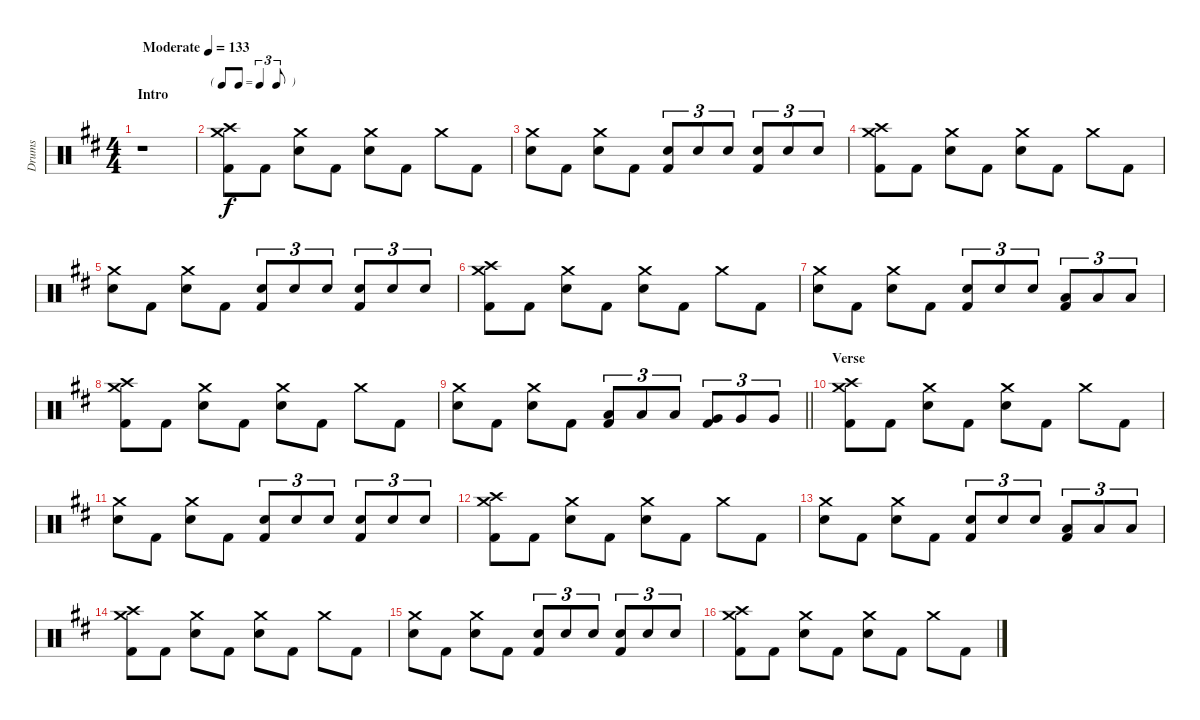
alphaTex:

\track ("Drums" "Drums") {instrument percussion}
\staff {score}
\articulation defaults
\ts (4 4)
\section ("" "Intro")
\tempo (133 "Moderate")
\clef neutral
\ks d
r.1{dy f} |
\tf triplet8th
("Crash high (hit)" "Crash medium (hit)" "Kick (hit) 2").8 "Kick (hit) 2".8 ("Crash medium (hit)" "Snare (hit) 2").8 "Kick (hit) 2".8 ("Crash medium (hit)" "Snare (hit) 2").8 "Kick (hit) 2".8 "Crash medium (hit)".8 "Kick (hit) 2".8 |
("Crash medium (hit)" "Snare (hit) 2").8 "Kick (hit) 2".8 ("Crash medium (hit)" "Snare (hit) 2").8 "Kick (hit) 2".8 ("Snare (hit) 2" "Kick (hit) 2").8{tu (3 2)} "Snare (hit) 2".8{tu (3 2)} "Snare (hit) 2".8{tu (3 2)} ("Snare (hit) 2" "Kick (hit) 2").8{tu (3 2)} "Snare (hit) 2".8{tu (3 2)} "Snare (hit) 2".8{tu (3 2)} |
("Crash high (hit)" "Crash medium (hit)" "Kick (hit) 2").8 "Kick (hit) 2".8 ("Crash medium (hit)" "Snare (hit) 2").8 "Kick (hit) 2".8 ("Crash medium (hit)" "Snare (hit) 2").8 "Kick (hit) 2".8 "Crash medium (hit)".8 "Kick (hit) 2".8 |
("Crash medium (hit)" "Snare (hit) 2").8 "Kick (hit) 2".8 ("Crash medium (hit)" "Snare (hit) 2").8 "Kick (hit) 2".8 ("Snare (hit) 2" "Kick (hit) 2").8{tu (3 2)} "Snare (hit) 2".8{tu (3 2)} "Snare (hit) 2".8{tu (3 2)} ("Snare (hit) 2" "Kick (hit) 2").8{tu (3 2)} "Snare (hit) 2".8{tu (3 2)} "Snare (hit) 2".8{tu (3 2)} |
("Crash high (hit)" "Crash medium (hit)" "Kick (hit) 2").8 "Kick (hit) 2".8 ("Crash medium (hit)" "Snare (hit) 2").8 "Kick (hit) 2".8 ("Crash medium (hit)" "Snare (hit) 2").8 "Kick (hit) 2".8 "Crash medium (hit)".8 "Kick (hit) 2".8 |
("Crash medium (hit)" "Snare (hit) 2").8 "Kick (hit) 2".8 ("Crash medium (hit)" "Snare (hit) 2").8 "Kick (hit) 2".8 ("Snare (hit) 2" "Kick (hit) 2").8{tu (3 2)} "Snare (hit) 2".8{tu (3 2)} "Snare (hit) 2".8{tu (3 2)} ("Low Tom (hit)" "Kick (hit) 2").8{tu (3 2)} "Low Tom (hit)".8{tu (3 2)} "Low Tom (hit)".8{tu (3 2)} |
("Crash high (hit)" "Crash medium (hit)" "Kick (hit) 2").8 "Kick (hit) 2".8 ("Crash medium (hit)" "Snare (hit) 2").8 "Kick (hit) 2".8 ("Crash medium (hit)" "Snare (hit) 2").8 "Kick (hit) 2".8 "Crash medium (hit)".8 "Kick (hit) 2".8 |
\barLineRight lightlight
("Crash medium (hit)" "Snare (hit) 2").8 "Kick (hit) 2".8 ("Crash medium (hit)" "Snare (hit) 2").8 "Kick (hit) 2".8 ("Low Tom (hit)" "Kick (hit) 2").8{tu (3 2)} "Low Tom (hit)".8{tu (3 2)} "Low Tom (hit)".8{tu (3 2)} ("Very Low Tom (hit)" "Kick (hit) 2").8{tu (3 2)} "Very Low Tom (hit)".8{tu (3 2)} "Very Low Tom (hit)".8{tu (3 2)} |
\section ("" "Verse")
("Crash high (hit)" "Crash medium (hit)" "Kick (hit) 2").8 "Kick (hit) 2".8 ("Crash medium (hit)" "Snare (hit) 2").8 "Kick (hit) 2".8 ("Crash medium (hit)" "Snare (hit) 2").8 "Kick (hit) 2".8 "Crash medium (hit)".8 "Kick (hit) 2".8 |
("Crash medium (hit)" "Snare (hit) 2").8 "Kick (hit) 2".8 ("Crash medium (hit)" "Snare (hit) 2").8 "Kick (hit) 2".8 ("Snare (hit) 2" "Kick (hit) 2").8{tu (3 2)} "Snare (hit) 2".8{tu (3 2)} "Snare (hit) 2".8{tu (3 2)} ("Snare (hit) 2" "Kick (hit) 2").8{tu (3 2)} "Snare (hit) 2".8{tu (3 2)} "Snare (hit) 2".8{tu (3 2)} |
("Crash high (hit)" "Crash medium (hit)" "Kick (hit) 2").8 "Kick (hit) 2".8 ("Crash medium (hit)" "Snare (hit) 2").8 "Kick (hit) 2".8 ("Crash medium (hit)" "Snare (hit) 2").8 "Kick (hit) 2".8 "Crash medium (hit)".8 "Kick (hit) 2".8 |
("Crash medium (hit)" "Snare (hit) 2").8 "Kick (hit) 2".8 ("Crash medium (hit)" "Snare (hit) 2").8 "Kick (hit) 2".8 ("Snare (hit) 2" "Kick (hit) 2").8{tu (3 2)} "Snare (hit) 2".8{tu (3 2)} "Snare (hit) 2".8{tu (3 2)} ("Low Tom (hit)" "Kick (hit) 2").8{tu (3 2)} "Low Tom (hit)".8{tu (3 2)} "Low Tom (hit)".8{tu (3 2)} |
("Crash high (hit)" "Crash medium (hit)" "Kick (hit) 2").8 "Kick (hit) 2".8 ("Crash medium (hit)" "Snare (hit) 2").8 "Kick (hit) 2".8 ("Crash medium (hit)" "Snare (hit) 2").8 "Kick (hit) 2".8 "Crash medium (hit)".8 "Kick (hit) 2".8 |
("Crash medium (hit)" "Snare (hit) 2").8 "Kick (hit) 2".8 ("Crash medium (hit)" "Snare (hit) 2").8 "Kick (hit) 2".8 ("Snare (hit) 2" "Kick (hit) 2").8{tu (3 2)} "Snare (hit) 2".8{tu (3 2)} "Snare (hit) 2".8{tu (3 2)} ("Snare (hit) 2" "Kick (hit) 2").8{tu (3 2)} "Snare (hit) 2".8{tu (3 2)} "Snare (hit) 2".8{tu (3 2)} |
("Crash high (hit)" "Crash medium (hit)" "Kick (hit) 2").8 "Kick (hit) 2".8 ("Crash medium (hit)" "Snare (hit) 2").8 "Kick (hit) 2".8 ("Crash medium (hit)" "Snare (hit) 2").8 "Kick (hit) 2".8 "Crash medium (hit)".8 "Kick (hit) 2".8
